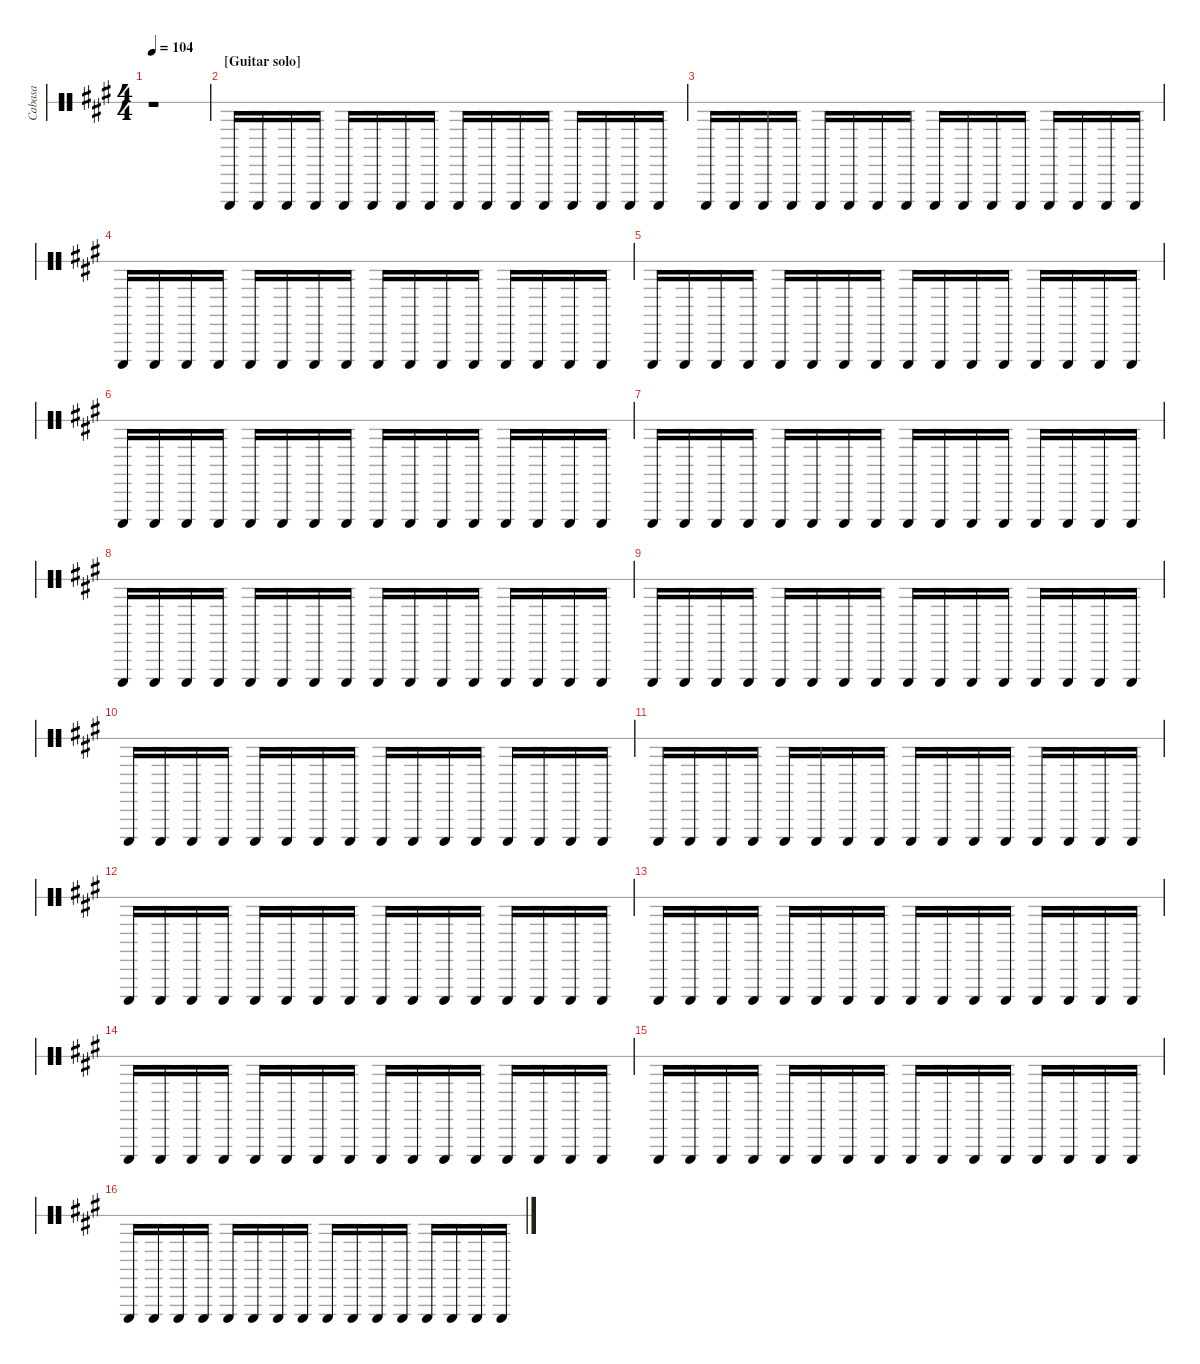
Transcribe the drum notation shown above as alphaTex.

\hideDynamics
\bracketExtendMode nobrackets
\otherSystemsTrackNameOrientation horizontal
\track ("Cabasa" "Cabasa") {instrument percussion}
\staff {score 1}
\articulation defaults
\ts (4 4)
\tempo 104
\clef neutral
\ks a
r.1{dy f beam Down} |
\section ("" "[Guitar solo]")
"Cabasa (hit)"{acc forcenatural}.16{beam Up} "Cabasa (hit)"{acc forcenatural}.16{beam Up} "Cabasa (hit)"{acc forcenatural}.16{beam Up} "Cabasa (hit)"{acc forcenatural}.16{beam Up} "Cabasa (hit)"{acc forcenatural}.16{beam Up} "Cabasa (hit)"{acc forcenatural}.16{beam Up} "Cabasa (hit)"{acc forcenatural}.16{beam Up} "Cabasa (hit)"{acc forcenatural}.16{beam Up} "Cabasa (hit)"{acc forcenatural}.16{beam Up} "Cabasa (hit)"{acc forcenatural}.16{beam Up} "Cabasa (hit)"{acc forcenatural}.16{beam Up} "Cabasa (hit)"{acc forcenatural}.16{beam Up} "Cabasa (hit)"{acc forcenatural}.16{beam Up} "Cabasa (hit)"{acc forcenatural}.16{beam Up} "Cabasa (hit)"{acc forcenatural}.16{beam Up} "Cabasa (hit)"{acc forcenatural}.16{beam Up} |
"Cabasa (hit)"{acc forcenatural}.16{beam Up} "Cabasa (hit)"{acc forcenatural}.16{beam Up} "Cabasa (hit)"{acc forcenatural}.16{beam Up} "Cabasa (hit)"{acc forcenatural}.16{beam Up} "Cabasa (hit)"{acc forcenatural}.16{beam Up} "Cabasa (hit)"{acc forcenatural}.16{beam Up} "Cabasa (hit)"{acc forcenatural}.16{beam Up} "Cabasa (hit)"{acc forcenatural}.16{beam Up} "Cabasa (hit)"{acc forcenatural}.16{beam Up} "Cabasa (hit)"{acc forcenatural}.16{beam Up} "Cabasa (hit)"{acc forcenatural}.16{beam Up} "Cabasa (hit)"{acc forcenatural}.16{beam Up} "Cabasa (hit)"{acc forcenatural}.16{beam Up} "Cabasa (hit)"{acc forcenatural}.16{beam Up} "Cabasa (hit)"{acc forcenatural}.16{beam Up} "Cabasa (hit)"{acc forcenatural}.16{beam Up} |
"Cabasa (hit)"{acc forcenatural}.16{beam Up} "Cabasa (hit)"{acc forcenatural}.16{beam Up} "Cabasa (hit)"{acc forcenatural}.16{beam Up} "Cabasa (hit)"{acc forcenatural}.16{beam Up} "Cabasa (hit)"{acc forcenatural}.16{beam Up} "Cabasa (hit)"{acc forcenatural}.16{beam Up} "Cabasa (hit)"{acc forcenatural}.16{beam Up} "Cabasa (hit)"{acc forcenatural}.16{beam Up} "Cabasa (hit)"{acc forcenatural}.16{beam Up} "Cabasa (hit)"{acc forcenatural}.16{beam Up} "Cabasa (hit)"{acc forcenatural}.16{beam Up} "Cabasa (hit)"{acc forcenatural}.16{beam Up} "Cabasa (hit)"{acc forcenatural}.16{beam Up} "Cabasa (hit)"{acc forcenatural}.16{beam Up} "Cabasa (hit)"{acc forcenatural}.16{beam Up} "Cabasa (hit)"{acc forcenatural}.16{beam Up} |
"Cabasa (hit)"{acc forcenatural}.16{beam Up} "Cabasa (hit)"{acc forcenatural}.16{beam Up} "Cabasa (hit)"{acc forcenatural}.16{beam Up} "Cabasa (hit)"{acc forcenatural}.16{beam Up} "Cabasa (hit)"{acc forcenatural}.16{beam Up} "Cabasa (hit)"{acc forcenatural}.16{beam Up} "Cabasa (hit)"{acc forcenatural}.16{beam Up} "Cabasa (hit)"{acc forcenatural}.16{beam Up} "Cabasa (hit)"{acc forcenatural}.16{beam Up} "Cabasa (hit)"{acc forcenatural}.16{beam Up} "Cabasa (hit)"{acc forcenatural}.16{beam Up} "Cabasa (hit)"{acc forcenatural}.16{beam Up} "Cabasa (hit)"{acc forcenatural}.16{beam Up} "Cabasa (hit)"{acc forcenatural}.16{beam Up} "Cabasa (hit)"{acc forcenatural}.16{beam Up} "Cabasa (hit)"{acc forcenatural}.16{beam Up} |
"Cabasa (hit)"{acc forcenatural}.16{beam Up} "Cabasa (hit)"{acc forcenatural}.16{beam Up} "Cabasa (hit)"{acc forcenatural}.16{beam Up} "Cabasa (hit)"{acc forcenatural}.16{beam Up} "Cabasa (hit)"{acc forcenatural}.16{beam Up} "Cabasa (hit)"{acc forcenatural}.16{beam Up} "Cabasa (hit)"{acc forcenatural}.16{beam Up} "Cabasa (hit)"{acc forcenatural}.16{beam Up} "Cabasa (hit)"{acc forcenatural}.16{beam Up} "Cabasa (hit)"{acc forcenatural}.16{beam Up} "Cabasa (hit)"{acc forcenatural}.16{beam Up} "Cabasa (hit)"{acc forcenatural}.16{beam Up} "Cabasa (hit)"{acc forcenatural}.16{beam Up} "Cabasa (hit)"{acc forcenatural}.16{beam Up} "Cabasa (hit)"{acc forcenatural}.16{beam Up} "Cabasa (hit)"{acc forcenatural}.16{beam Up} |
"Cabasa (hit)"{acc forcenatural}.16{beam Up} "Cabasa (hit)"{acc forcenatural}.16{beam Up} "Cabasa (hit)"{acc forcenatural}.16{beam Up} "Cabasa (hit)"{acc forcenatural}.16{beam Up} "Cabasa (hit)"{acc forcenatural}.16{beam Up} "Cabasa (hit)"{acc forcenatural}.16{beam Up} "Cabasa (hit)"{acc forcenatural}.16{beam Up} "Cabasa (hit)"{acc forcenatural}.16{beam Up} "Cabasa (hit)"{acc forcenatural}.16{beam Up} "Cabasa (hit)"{acc forcenatural}.16{beam Up} "Cabasa (hit)"{acc forcenatural}.16{beam Up} "Cabasa (hit)"{acc forcenatural}.16{beam Up} "Cabasa (hit)"{acc forcenatural}.16{beam Up} "Cabasa (hit)"{acc forcenatural}.16{beam Up} "Cabasa (hit)"{acc forcenatural}.16{beam Up} "Cabasa (hit)"{acc forcenatural}.16{beam Up} |
"Cabasa (hit)"{acc forcenatural}.16{beam Up} "Cabasa (hit)"{acc forcenatural}.16{beam Up} "Cabasa (hit)"{acc forcenatural}.16{beam Up} "Cabasa (hit)"{acc forcenatural}.16{beam Up} "Cabasa (hit)"{acc forcenatural}.16{beam Up} "Cabasa (hit)"{acc forcenatural}.16{beam Up} "Cabasa (hit)"{acc forcenatural}.16{beam Up} "Cabasa (hit)"{acc forcenatural}.16{beam Up} "Cabasa (hit)"{acc forcenatural}.16{beam Up} "Cabasa (hit)"{acc forcenatural}.16{beam Up} "Cabasa (hit)"{acc forcenatural}.16{beam Up} "Cabasa (hit)"{acc forcenatural}.16{beam Up} "Cabasa (hit)"{acc forcenatural}.16{beam Up} "Cabasa (hit)"{acc forcenatural}.16{beam Up} "Cabasa (hit)"{acc forcenatural}.16{beam Up} "Cabasa (hit)"{acc forcenatural}.16{beam Up} |
"Cabasa (hit)"{acc forcenatural}.16{beam Up} "Cabasa (hit)"{acc forcenatural}.16{beam Up} "Cabasa (hit)"{acc forcenatural}.16{beam Up} "Cabasa (hit)"{acc forcenatural}.16{beam Up} "Cabasa (hit)"{acc forcenatural}.16{beam Up} "Cabasa (hit)"{acc forcenatural}.16{beam Up} "Cabasa (hit)"{acc forcenatural}.16{beam Up} "Cabasa (hit)"{acc forcenatural}.16{beam Up} "Cabasa (hit)"{acc forcenatural}.16{beam Up} "Cabasa (hit)"{acc forcenatural}.16{beam Up} "Cabasa (hit)"{acc forcenatural}.16{beam Up} "Cabasa (hit)"{acc forcenatural}.16{beam Up} "Cabasa (hit)"{acc forcenatural}.16{beam Up} "Cabasa (hit)"{acc forcenatural}.16{beam Up} "Cabasa (hit)"{acc forcenatural}.16{beam Up} "Cabasa (hit)"{acc forcenatural}.16{beam Up} |
"Cabasa (hit)"{acc forcenatural}.16{beam Up} "Cabasa (hit)"{acc forcenatural}.16{beam Up} "Cabasa (hit)"{acc forcenatural}.16{beam Up} "Cabasa (hit)"{acc forcenatural}.16{beam Up} "Cabasa (hit)"{acc forcenatural}.16{beam Up} "Cabasa (hit)"{acc forcenatural}.16{beam Up} "Cabasa (hit)"{acc forcenatural}.16{beam Up} "Cabasa (hit)"{acc forcenatural}.16{beam Up} "Cabasa (hit)"{acc forcenatural}.16{beam Up} "Cabasa (hit)"{acc forcenatural}.16{beam Up} "Cabasa (hit)"{acc forcenatural}.16{beam Up} "Cabasa (hit)"{acc forcenatural}.16{beam Up} "Cabasa (hit)"{acc forcenatural}.16{beam Up} "Cabasa (hit)"{acc forcenatural}.16{beam Up} "Cabasa (hit)"{acc forcenatural}.16{beam Up} "Cabasa (hit)"{acc forcenatural}.16{beam Up} |
"Cabasa (hit)"{acc forcenatural}.16{beam Up} "Cabasa (hit)"{acc forcenatural}.16{beam Up} "Cabasa (hit)"{acc forcenatural}.16{beam Up} "Cabasa (hit)"{acc forcenatural}.16{beam Up} "Cabasa (hit)"{acc forcenatural}.16{beam Up} "Cabasa (hit)"{acc forcenatural}.16{beam Up} "Cabasa (hit)"{acc forcenatural}.16{beam Up} "Cabasa (hit)"{acc forcenatural}.16{beam Up} "Cabasa (hit)"{acc forcenatural}.16{beam Up} "Cabasa (hit)"{acc forcenatural}.16{beam Up} "Cabasa (hit)"{acc forcenatural}.16{beam Up} "Cabasa (hit)"{acc forcenatural}.16{beam Up} "Cabasa (hit)"{acc forcenatural}.16{beam Up} "Cabasa (hit)"{acc forcenatural}.16{beam Up} "Cabasa (hit)"{acc forcenatural}.16{beam Up} "Cabasa (hit)"{acc forcenatural}.16{beam Up} |
"Cabasa (hit)"{acc forcenatural}.16{beam Up} "Cabasa (hit)"{acc forcenatural}.16{beam Up} "Cabasa (hit)"{acc forcenatural}.16{beam Up} "Cabasa (hit)"{acc forcenatural}.16{beam Up} "Cabasa (hit)"{acc forcenatural}.16{beam Up} "Cabasa (hit)"{acc forcenatural}.16{beam Up} "Cabasa (hit)"{acc forcenatural}.16{beam Up} "Cabasa (hit)"{acc forcenatural}.16{beam Up} "Cabasa (hit)"{acc forcenatural}.16{beam Up} "Cabasa (hit)"{acc forcenatural}.16{beam Up} "Cabasa (hit)"{acc forcenatural}.16{beam Up} "Cabasa (hit)"{acc forcenatural}.16{beam Up} "Cabasa (hit)"{acc forcenatural}.16{beam Up} "Cabasa (hit)"{acc forcenatural}.16{beam Up} "Cabasa (hit)"{acc forcenatural}.16{beam Up} "Cabasa (hit)"{acc forcenatural}.16{beam Up} |
"Cabasa (hit)"{acc forcenatural}.16{beam Up} "Cabasa (hit)"{acc forcenatural}.16{beam Up} "Cabasa (hit)"{acc forcenatural}.16{beam Up} "Cabasa (hit)"{acc forcenatural}.16{beam Up} "Cabasa (hit)"{acc forcenatural}.16{beam Up} "Cabasa (hit)"{acc forcenatural}.16{beam Up} "Cabasa (hit)"{acc forcenatural}.16{beam Up} "Cabasa (hit)"{acc forcenatural}.16{beam Up} "Cabasa (hit)"{acc forcenatural}.16{beam Up} "Cabasa (hit)"{acc forcenatural}.16{beam Up} "Cabasa (hit)"{acc forcenatural}.16{beam Up} "Cabasa (hit)"{acc forcenatural}.16{beam Up} "Cabasa (hit)"{acc forcenatural}.16{beam Up} "Cabasa (hit)"{acc forcenatural}.16{beam Up} "Cabasa (hit)"{acc forcenatural}.16{beam Up} "Cabasa (hit)"{acc forcenatural}.16{beam Up} |
"Cabasa (hit)"{acc forcenatural}.16{beam Up} "Cabasa (hit)"{acc forcenatural}.16{beam Up} "Cabasa (hit)"{acc forcenatural}.16{beam Up} "Cabasa (hit)"{acc forcenatural}.16{beam Up} "Cabasa (hit)"{acc forcenatural}.16{beam Up} "Cabasa (hit)"{acc forcenatural}.16{beam Up} "Cabasa (hit)"{acc forcenatural}.16{beam Up} "Cabasa (hit)"{acc forcenatural}.16{beam Up} "Cabasa (hit)"{acc forcenatural}.16{beam Up} "Cabasa (hit)"{acc forcenatural}.16{beam Up} "Cabasa (hit)"{acc forcenatural}.16{beam Up} "Cabasa (hit)"{acc forcenatural}.16{beam Up} "Cabasa (hit)"{acc forcenatural}.16{beam Up} "Cabasa (hit)"{acc forcenatural}.16{beam Up} "Cabasa (hit)"{acc forcenatural}.16{beam Up} "Cabasa (hit)"{acc forcenatural}.16{beam Up} |
"Cabasa (hit)"{acc forcenatural}.16{beam Up} "Cabasa (hit)"{acc forcenatural}.16{beam Up} "Cabasa (hit)"{acc forcenatural}.16{beam Up} "Cabasa (hit)"{acc forcenatural}.16{beam Up} "Cabasa (hit)"{acc forcenatural}.16{beam Up} "Cabasa (hit)"{acc forcenatural}.16{beam Up} "Cabasa (hit)"{acc forcenatural}.16{beam Up} "Cabasa (hit)"{acc forcenatural}.16{beam Up} "Cabasa (hit)"{acc forcenatural}.16{beam Up} "Cabasa (hit)"{acc forcenatural}.16{beam Up} "Cabasa (hit)"{acc forcenatural}.16{beam Up} "Cabasa (hit)"{acc forcenatural}.16{beam Up} "Cabasa (hit)"{acc forcenatural}.16{beam Up} "Cabasa (hit)"{acc forcenatural}.16{beam Up} "Cabasa (hit)"{acc forcenatural}.16{beam Up} "Cabasa (hit)"{acc forcenatural}.16{beam Up} |
"Cabasa (hit)"{acc forcenatural}.16{beam Up} "Cabasa (hit)"{acc forcenatural}.16{beam Up} "Cabasa (hit)"{acc forcenatural}.16{beam Up} "Cabasa (hit)"{acc forcenatural}.16{beam Up} "Cabasa (hit)"{acc forcenatural}.16{beam Up} "Cabasa (hit)"{acc forcenatural}.16{beam Up} "Cabasa (hit)"{acc forcenatural}.16{beam Up} "Cabasa (hit)"{acc forcenatural}.16{beam Up} "Cabasa (hit)"{acc forcenatural}.16{beam Up} "Cabasa (hit)"{acc forcenatural}.16{beam Up} "Cabasa (hit)"{acc forcenatural}.16{beam Up} "Cabasa (hit)"{acc forcenatural}.16{beam Up} "Cabasa (hit)"{acc forcenatural}.16{beam Up} "Cabasa (hit)"{acc forcenatural}.16{beam Up} "Cabasa (hit)"{acc forcenatural}.16{beam Up} "Cabasa (hit)"{acc forcenatural}.16{beam Up}
